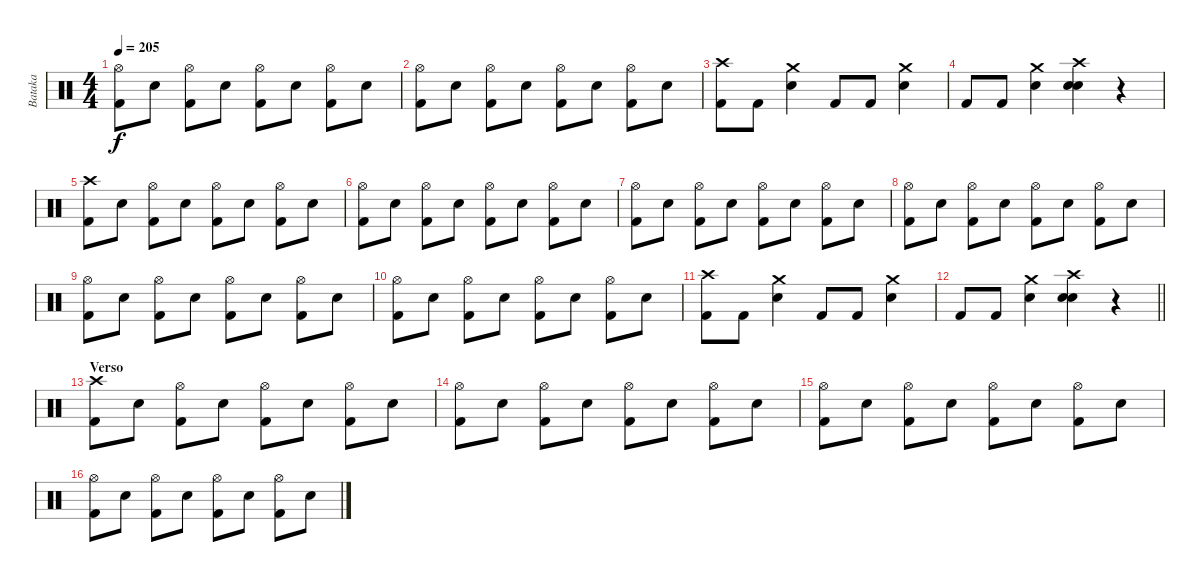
\track ("Bataka" "Bataka") {instrument percussion}
\staff {score}
\articulation defaults
\ts (4 4)
\tempo 205
\clef neutral
\ks c
("Hi-Hat (open)" "Kick (hit) 2").8{dy f} "Snare (hit) 2".8 ("Hi-Hat (open)" "Kick (hit) 2").8 "Snare (hit) 2".8 ("Hi-Hat (open)" "Kick (hit) 2").8 "Snare (hit) 2".8 ("Hi-Hat (open)" "Kick (hit) 2").8 "Snare (hit) 2".8 |
("Hi-Hat (open)" "Kick (hit) 2").8 "Snare (hit) 2".8 ("Hi-Hat (open)" "Kick (hit) 2").8 "Snare (hit) 2".8 ("Hi-Hat (open)" "Kick (hit) 2").8 "Snare (hit) 2".8 ("Hi-Hat (open)" "Kick (hit) 2").8 "Snare (hit) 2".8 |
("Crash high (hit)" "Kick (hit) 2").8 "Kick (hit) 2".8 ("Crash medium (hit)" "Snare (hit) 2").4 "Kick (hit) 2".8 "Kick (hit) 2".8 ("Crash medium (hit)" "Snare (hit) 2").4 |
"Kick (hit) 2".8 "Kick (hit) 2".8 ("Crash medium (hit)" "Snare (hit) 2").4 ("Crash high (hit)" "Snare (hit) 2" "Snare (hit) 2").4 r.4 |
("Crash high (hit)" "Kick (hit) 2").8 "Snare (hit) 2".8 ("Hi-Hat (open)" "Kick (hit) 2").8 "Snare (hit) 2".8 ("Hi-Hat (open)" "Kick (hit) 2").8 "Snare (hit) 2".8 ("Hi-Hat (open)" "Kick (hit) 2").8 "Snare (hit) 2".8 |
("Hi-Hat (open)" "Kick (hit) 2").8 "Snare (hit) 2".8 ("Hi-Hat (open)" "Kick (hit) 2").8 "Snare (hit) 2".8 ("Hi-Hat (open)" "Kick (hit) 2").8 "Snare (hit) 2".8 ("Hi-Hat (open)" "Kick (hit) 2").8 "Snare (hit) 2".8 |
("Hi-Hat (open)" "Kick (hit) 2").8 "Snare (hit) 2".8 ("Hi-Hat (open)" "Kick (hit) 2").8 "Snare (hit) 2".8 ("Hi-Hat (open)" "Kick (hit) 2").8 "Snare (hit) 2".8 ("Hi-Hat (open)" "Kick (hit) 2").8 "Snare (hit) 2".8 |
("Hi-Hat (open)" "Kick (hit) 2").8 "Snare (hit) 2".8 ("Hi-Hat (open)" "Kick (hit) 2").8 "Snare (hit) 2".8 ("Hi-Hat (open)" "Kick (hit) 2").8 "Snare (hit) 2".8 ("Hi-Hat (open)" "Kick (hit) 2").8 "Snare (hit) 2".8 |
("Hi-Hat (open)" "Kick (hit) 2").8 "Snare (hit) 2".8 ("Hi-Hat (open)" "Kick (hit) 2").8 "Snare (hit) 2".8 ("Hi-Hat (open)" "Kick (hit) 2").8 "Snare (hit) 2".8 ("Hi-Hat (open)" "Kick (hit) 2").8 "Snare (hit) 2".8 |
("Hi-Hat (open)" "Kick (hit) 2").8 "Snare (hit) 2".8 ("Hi-Hat (open)" "Kick (hit) 2").8 "Snare (hit) 2".8 ("Hi-Hat (open)" "Kick (hit) 2").8 "Snare (hit) 2".8 ("Hi-Hat (open)" "Kick (hit) 2").8 "Snare (hit) 2".8 |
("Crash high (hit)" "Kick (hit) 2").8 "Kick (hit) 2".8 ("Crash medium (hit)" "Snare (hit) 2").4 "Kick (hit) 2".8 "Kick (hit) 2".8 ("Crash medium (hit)" "Snare (hit) 2").4 |
\barLineRight lightlight "Kick (hit) 2".8 "Kick (hit) 2".8
("Crash medium (hit)" "Snare (hit) 2").4 ("Crash high (hit)" "Snare (hit) 2" "Snare (hit) 2").4 r.4 |
\section ("" "Verso ")
("Crash high (hit)" "Kick (hit) 2").8 "Snare (hit) 2".8 ("Hi-Hat (open)" "Kick (hit) 2").8 "Snare (hit) 2".8 ("Hi-Hat (open)" "Kick (hit) 2").8 "Snare (hit) 2".8 ("Hi-Hat (open)" "Kick (hit) 2").8 "Snare (hit) 2".8 |
("Hi-Hat (open)" "Kick (hit) 2").8 "Snare (hit) 2".8 ("Hi-Hat (open)" "Kick (hit) 2").8 "Snare (hit) 2".8 ("Hi-Hat (open)" "Kick (hit) 2").8 "Snare (hit) 2".8 ("Hi-Hat (open)" "Kick (hit) 2").8 "Snare (hit) 2".8 |
("Hi-Hat (open)" "Kick (hit) 2").8 "Snare (hit) 2".8 ("Hi-Hat (open)" "Kick (hit) 2").8 "Snare (hit) 2".8 ("Hi-Hat (open)" "Kick (hit) 2").8 "Snare (hit) 2".8 ("Hi-Hat (open)" "Kick (hit) 2").8 "Snare (hit) 2".8 |
("Hi-Hat (open)" "Kick (hit) 2").8 "Snare (hit) 2".8 ("Hi-Hat (open)" "Kick (hit) 2").8 "Snare (hit) 2".8 ("Hi-Hat (open)" "Kick (hit) 2").8 "Snare (hit) 2".8 ("Hi-Hat (open)" "Kick (hit) 2").8 "Snare (hit) 2".8
